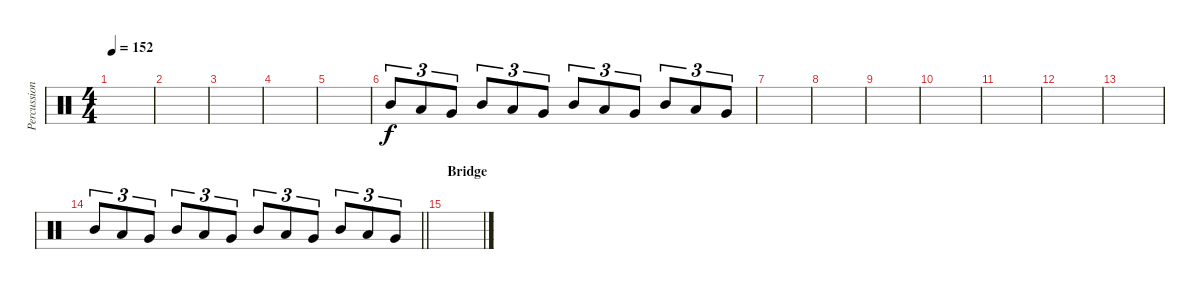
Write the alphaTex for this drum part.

\track ("Percussion" "Percussion") {instrument percussion}
\staff {score}
\articulation defaults
\ts (4 4)
\tempo 152
\clef neutral
\ks c
|
|
|
|
|
"Mid Tom (hit)".8{tu (3 2)} "Low Tom (hit)".8{tu (3 2)} "Very Low Tom (hit)".8{tu (3 2)} "Mid Tom (hit)".8{tu (3 2)} "Low Tom (hit)".8{tu (3 2)} "Very Low Tom (hit)".8{tu (3 2)} "Mid Tom (hit)".8{tu (3 2)} "Low Tom (hit)".8{tu (3 2)} "Very Low Tom (hit)".8{tu (3 2)} "Mid Tom (hit)".8{tu (3 2)} "Low Tom (hit)".8{tu (3 2)} "Very Low Tom (hit)".8{tu (3 2)} |
|
|
|
|
|
|
|
\barLineRight lightlight "Mid Tom (hit)".8{tu (3 2)} "Low Tom (hit)".8{tu (3 2)} "Very Low Tom (hit)".8{tu (3 2)} "Mid Tom (hit)".8{tu (3 2)} "Low Tom (hit)".8{tu (3 2)} "Very Low Tom (hit)".8{tu (3 2)} "Mid Tom (hit)".8{tu (3 2)} "Low Tom (hit)".8{tu (3 2)} "Very Low Tom (hit)".8{tu (3 2)} "Mid Tom (hit)".8{tu (3 2)} "Low Tom (hit)".8{tu (3 2)} "Very Low Tom (hit)".8{tu (3 2)}
|
\section ("" "Bridge")
